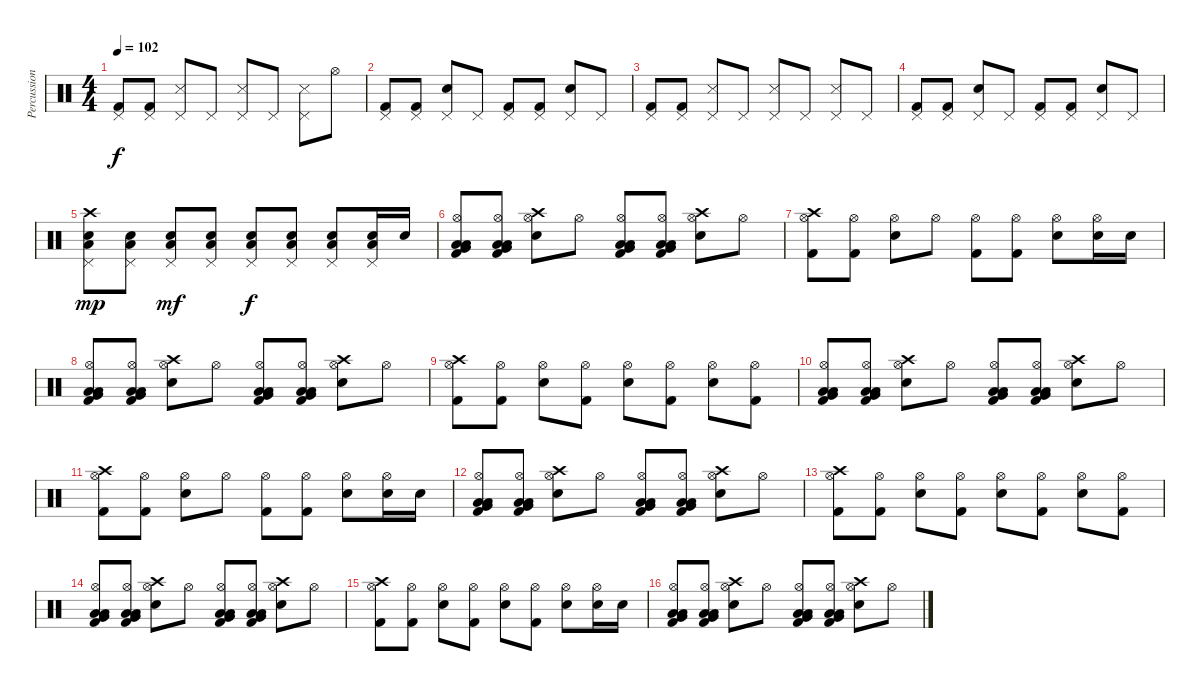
\track ("Percussion" "Percussion") {instrument percussion}
\staff {score}
\articulation defaults
\ts (4 4)
\tempo 102
\clef neutral
\ks c
("Kick (hit) 2" "Pedal Hi-Hat (hit)").8{dy f} ("Kick (hit) 2" "Pedal Hi-Hat (hit)").8 ("Metronome (hit)" "Pedal Hi-Hat (hit)").8 "Pedal Hi-Hat (hit)".8 ("Metronome (hit)" "Pedal Hi-Hat (hit)").8 "Pedal Hi-Hat (hit)".8 ("Metronome (hit)" "Pedal Hi-Hat (hit)").8 "Hi-Hat (open)".8 |
("Kick (hit) 2" "Pedal Hi-Hat (hit)").8 ("Kick (hit) 2" "Pedal Hi-Hat (hit)").8 ("Snare (hit) 2" "Pedal Hi-Hat (hit)").8 "Pedal Hi-Hat (hit)".8 ("Kick (hit) 2" "Pedal Hi-Hat (hit)").8 ("Kick (hit) 2" "Pedal Hi-Hat (hit)").8 ("Snare (hit) 2" "Pedal Hi-Hat (hit)").8 "Pedal Hi-Hat (hit)".8 |
("Kick (hit) 2" "Pedal Hi-Hat (hit)").8 ("Kick (hit) 2" "Pedal Hi-Hat (hit)").8 ("Metronome (hit)" "Pedal Hi-Hat (hit)").8 "Pedal Hi-Hat (hit)".8 ("Metronome (hit)" "Pedal Hi-Hat (hit)").8 "Pedal Hi-Hat (hit)".8 ("Metronome (hit)" "Pedal Hi-Hat (hit)").8 "Pedal Hi-Hat (hit)".8 |
("Kick (hit) 2" "Pedal Hi-Hat (hit)").8 ("Kick (hit) 2" "Pedal Hi-Hat (hit)").8 ("Snare (hit) 2" "Pedal Hi-Hat (hit)").8 "Pedal Hi-Hat (hit)".8 ("Kick (hit) 2" "Pedal Hi-Hat (hit)").8 ("Kick (hit) 2" "Pedal Hi-Hat (hit)").8 ("Snare (hit) 2" "Pedal Hi-Hat (hit)").8 "Pedal Hi-Hat (hit)".8 |
("Snare (hit) 2" "Low Tom (hit)" "Crash high (hit)" "Pedal Hi-Hat (hit)").8{dy mp} ("Snare (hit) 2" "Low Tom (hit)" "Pedal Hi-Hat (hit)").8 ("Snare (hit) 2" "Low Tom (hit)" "Pedal Hi-Hat (hit)").8{dy mf} ("Snare (hit) 2" "Low Tom (hit)" "Pedal Hi-Hat (hit)").8 ("Snare (hit) 2" "Low Tom (hit)" "Pedal Hi-Hat (hit)").8{dy f} ("Snare (hit) 2" "Low Tom (hit)" "Pedal Hi-Hat (hit)").8 ("Snare (hit) 2" "Low Tom (hit)" "Pedal Hi-Hat (hit)").8 ("Snare (hit) 2" "Low Tom (hit)" "Pedal Hi-Hat (hit)").16 "Snare (hit) 2".16 |
("Kick (hit) 2" "Hi-Hat (open)" "Low Tom (hit)" "Very Low Tom (hit)" "Low Floor Tom (hit)").8 ("Kick (hit) 2" "Hi-Hat (open)" "Low Tom (hit)" "Very Low Tom (hit)" "Low Floor Tom (hit)").8 ("Snare (hit) 2" "Hi-Hat (open)" "Crash high (hit)").8 "Hi-Hat (open)".8 ("Kick (hit) 2" "Hi-Hat (open)" "Low Tom (hit)" "Very Low Tom (hit)" "Low Floor Tom (hit)").8 ("Kick (hit) 2" "Hi-Hat (open)" "Low Tom (hit)" "Very Low Tom (hit)" "Low Floor Tom (hit)").8 ("Snare (hit) 2" "Hi-Hat (open)" "Crash high (hit)").8 "Hi-Hat (open)".8 |
("Kick (hit) 2" "Hi-Hat (open)" "Crash high (hit)").8 ("Kick (hit) 2" "Hi-Hat (open)").8 ("Snare (hit) 2" "Hi-Hat (open)").8 "Hi-Hat (open)".8 ("Kick (hit) 2" "Hi-Hat (open)").8 ("Kick (hit) 2" "Hi-Hat (open)").8 ("Snare (hit) 2" "Hi-Hat (open)").8 ("Snare (hit) 2" "Hi-Hat (open)").16 "Snare (hit) 2".16 |
("Kick (hit) 2" "Hi-Hat (open)" "Low Tom (hit)" "Very Low Tom (hit)" "Low Floor Tom (hit)").8 ("Kick (hit) 2" "Hi-Hat (open)" "Low Tom (hit)" "Very Low Tom (hit)" "Low Floor Tom (hit)").8 ("Snare (hit) 2" "Hi-Hat (open)" "Crash high (hit)").8 "Hi-Hat (open)".8 ("Kick (hit) 2" "Hi-Hat (open)" "Low Tom (hit)" "Very Low Tom (hit)" "Low Floor Tom (hit)").8 ("Kick (hit) 2" "Hi-Hat (open)" "Low Tom (hit)" "Very Low Tom (hit)" "Low Floor Tom (hit)").8 ("Snare (hit) 2" "Hi-Hat (open)" "Crash high (hit)").8 "Hi-Hat (open)".8 |
("Kick (hit) 2" "Hi-Hat (open)" "Crash high (hit)").8 ("Kick (hit) 2" "Hi-Hat (open)").8 ("Snare (hit) 2" "Hi-Hat (open)").8 ("Kick (hit) 2" "Hi-Hat (open)").8 ("Snare (hit) 2" "Hi-Hat (open)").8 ("Kick (hit) 2" "Hi-Hat (open)").8 ("Snare (hit) 2" "Hi-Hat (open)").8 ("Kick (hit) 2" "Hi-Hat (open)").8 |
("Kick (hit) 2" "Hi-Hat (open)" "Low Tom (hit)" "Very Low Tom (hit)" "Low Floor Tom (hit)").8 ("Kick (hit) 2" "Hi-Hat (open)" "Low Tom (hit)" "Very Low Tom (hit)" "Low Floor Tom (hit)").8 ("Snare (hit) 2" "Hi-Hat (open)" "Crash high (hit)").8 "Hi-Hat (open)".8 ("Kick (hit) 2" "Hi-Hat (open)" "Low Tom (hit)" "Very Low Tom (hit)" "Low Floor Tom (hit)").8 ("Kick (hit) 2" "Hi-Hat (open)" "Low Tom (hit)" "Very Low Tom (hit)" "Low Floor Tom (hit)").8 ("Snare (hit) 2" "Hi-Hat (open)" "Crash high (hit)").8 "Hi-Hat (open)".8 |
("Kick (hit) 2" "Hi-Hat (open)" "Crash high (hit)").8 ("Kick (hit) 2" "Hi-Hat (open)").8 ("Snare (hit) 2" "Hi-Hat (open)").8 "Hi-Hat (open)".8 ("Kick (hit) 2" "Hi-Hat (open)").8 ("Kick (hit) 2" "Hi-Hat (open)").8 ("Snare (hit) 2" "Hi-Hat (open)").8 ("Snare (hit) 2" "Hi-Hat (open)").16 "Snare (hit) 2".16 |
("Kick (hit) 2" "Hi-Hat (open)" "Low Tom (hit)" "Very Low Tom (hit)" "Low Floor Tom (hit)").8 ("Kick (hit) 2" "Hi-Hat (open)" "Low Tom (hit)" "Very Low Tom (hit)" "Low Floor Tom (hit)").8 ("Snare (hit) 2" "Hi-Hat (open)" "Crash high (hit)").8 "Hi-Hat (open)".8 ("Kick (hit) 2" "Hi-Hat (open)" "Low Tom (hit)" "Very Low Tom (hit)" "Low Floor Tom (hit)").8 ("Kick (hit) 2" "Hi-Hat (open)" "Low Tom (hit)" "Very Low Tom (hit)" "Low Floor Tom (hit)").8 ("Snare (hit) 2" "Hi-Hat (open)" "Crash high (hit)").8 "Hi-Hat (open)".8 |
("Kick (hit) 2" "Hi-Hat (open)" "Crash high (hit)").8 ("Kick (hit) 2" "Hi-Hat (open)").8 ("Snare (hit) 2" "Hi-Hat (open)").8 ("Kick (hit) 2" "Hi-Hat (open)").8 ("Snare (hit) 2" "Hi-Hat (open)").8 ("Kick (hit) 2" "Hi-Hat (open)").8 ("Snare (hit) 2" "Hi-Hat (open)").8 ("Kick (hit) 2" "Hi-Hat (open)").8 |
("Kick (hit) 2" "Hi-Hat (open)" "Low Tom (hit)" "Very Low Tom (hit)" "Low Floor Tom (hit)").8 ("Kick (hit) 2" "Hi-Hat (open)" "Low Tom (hit)" "Very Low Tom (hit)" "Low Floor Tom (hit)").8 ("Snare (hit) 2" "Hi-Hat (open)" "Crash high (hit)").8 "Hi-Hat (open)".8 ("Kick (hit) 2" "Hi-Hat (open)" "Low Tom (hit)" "Very Low Tom (hit)" "Low Floor Tom (hit)").8 ("Kick (hit) 2" "Hi-Hat (open)" "Low Tom (hit)" "Very Low Tom (hit)" "Low Floor Tom (hit)").8 ("Snare (hit) 2" "Hi-Hat (open)" "Crash high (hit)").8 "Hi-Hat (open)".8 |
("Kick (hit) 2" "Hi-Hat (open)" "Crash high (hit)").8 ("Kick (hit) 2" "Hi-Hat (open)").8 ("Snare (hit) 2" "Hi-Hat (open)").8 ("Kick (hit) 2" "Hi-Hat (open)").8 ("Snare (hit) 2" "Hi-Hat (open)").8 ("Kick (hit) 2" "Hi-Hat (open)").8 ("Snare (hit) 2" "Hi-Hat (open)").8 ("Snare (hit) 2" "Hi-Hat (open)").16 "Snare (hit) 2".16 |
("Kick (hit) 2" "Hi-Hat (open)" "Low Tom (hit)" "Very Low Tom (hit)" "Low Floor Tom (hit)").8 ("Kick (hit) 2" "Hi-Hat (open)" "Low Tom (hit)" "Very Low Tom (hit)" "Low Floor Tom (hit)").8 ("Snare (hit) 2" "Hi-Hat (open)" "Crash high (hit)").8 "Hi-Hat (open)".8 ("Kick (hit) 2" "Hi-Hat (open)" "Low Tom (hit)" "Very Low Tom (hit)" "Low Floor Tom (hit)").8 ("Kick (hit) 2" "Hi-Hat (open)" "Low Tom (hit)" "Very Low Tom (hit)" "Low Floor Tom (hit)").8 ("Snare (hit) 2" "Hi-Hat (open)" "Crash high (hit)").8 "Hi-Hat (open)".8
